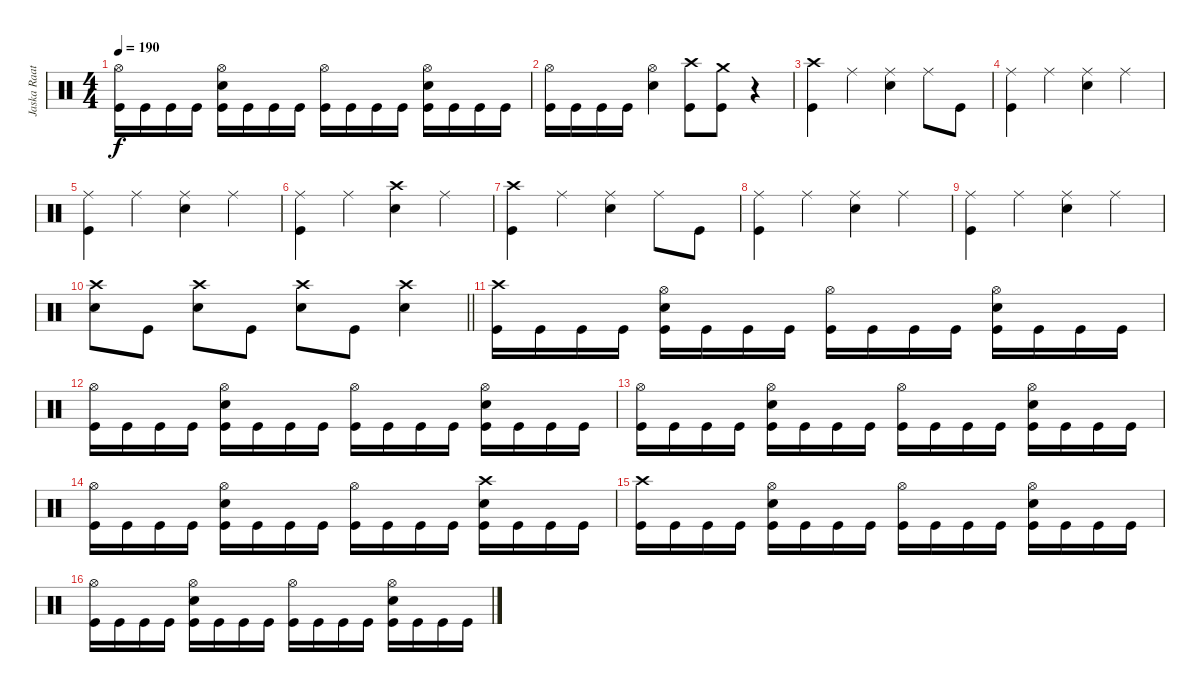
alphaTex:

\track ("Jaska Raatikainen" "Jaska Raat") {instrument percussion}
\staff {score}
\articulation defaults
\ts (4 4)
\tempo 190
\clef neutral
\ks c
("Hi-Hat (open)" "Kick (hit)").16{dy f} "Kick (hit)".16 "Kick (hit)".16 "Kick (hit)".16 ("Hi-Hat (open)" "Snare (hit) 2" "Kick (hit)").16 "Kick (hit)".16 "Kick (hit)".16 "Kick (hit)".16 ("Hi-Hat (open)" "Kick (hit)").16 "Kick (hit)".16 "Kick (hit)".16 "Kick (hit)".16 ("Hi-Hat (open)" "Snare (hit) 2" "Kick (hit)").16 "Kick (hit)".16 "Kick (hit)".16 "Kick (hit)".16 |
("Hi-Hat (open)" "Kick (hit)").16 "Kick (hit)".16 "Kick (hit)".16 "Kick (hit)".16 ("Hi-Hat (open)" "Snare (hit) 2").4 ("Crash high (hit)" "Kick (hit)").8 ("Crash medium (hit)" "Kick (hit)").8 r.4 |
("Crash high (hit)" "Kick (hit)").4 "Ride (middle)".4 ("Ride (middle)" "Snare (hit) 2").4 "Ride (middle)".8 "Kick (hit)".8 |
("Ride (middle)" "Kick (hit)").4 "Ride (middle)".4 ("Ride (middle)" "Snare (hit) 2").4 "Ride (middle)".4 |
("Ride (middle)" "Kick (hit)").4 "Ride (middle)".4 ("Ride (middle)" "Snare (hit) 2").4 "Ride (middle)".4 |
("Ride (middle)" "Kick (hit)").4 "Ride (middle)".4 ("Crash high (hit)" "Snare (hit) 2").4 "Ride (middle)".4 |
("Crash high (hit)" "Kick (hit)").4 "Ride (middle)".4 ("Ride (middle)" "Snare (hit) 2").4 "Ride (middle)".8 "Kick (hit)".8 |
("Ride (middle)" "Kick (hit)").4 "Ride (middle)".4 ("Ride (middle)" "Snare (hit) 2").4 "Ride (middle)".4 |
("Ride (middle)" "Kick (hit)").4 "Ride (middle)".4 ("Ride (middle)" "Snare (hit) 2").4 "Ride (middle)".4 |
\barLineRight lightlight
("Crash high (hit)" "Snare (hit) 2").8 "Kick (hit)".8 ("Crash high (hit)" "Snare (hit) 2").8 "Kick (hit)".8 ("Crash high (hit)" "Snare (hit) 2").8 "Kick (hit)".8 ("Crash high (hit)" "Snare (hit) 2").4 |
("Crash high (hit)" "Kick (hit)").16 "Kick (hit)".16 "Kick (hit)".16 "Kick (hit)".16 ("Hi-Hat (open)" "Snare (hit) 2" "Kick (hit)").16 "Kick (hit)".16 "Kick (hit)".16 "Kick (hit)".16 ("Hi-Hat (open)" "Kick (hit)").16 "Kick (hit)".16 "Kick (hit)".16 "Kick (hit)".16 ("Hi-Hat (open)" "Snare (hit) 2" "Kick (hit)").16 "Kick (hit)".16 "Kick (hit)".16 "Kick (hit)".16 |
("Hi-Hat (open)" "Kick (hit)").16 "Kick (hit)".16 "Kick (hit)".16 "Kick (hit)".16 ("Hi-Hat (open)" "Snare (hit) 2" "Kick (hit)").16 "Kick (hit)".16 "Kick (hit)".16 "Kick (hit)".16 ("Hi-Hat (open)" "Kick (hit)").16 "Kick (hit)".16 "Kick (hit)".16 "Kick (hit)".16 ("Hi-Hat (open)" "Snare (hit) 2" "Kick (hit)").16 "Kick (hit)".16 "Kick (hit)".16 "Kick (hit)".16 |
("Hi-Hat (open)" "Kick (hit)").16 "Kick (hit)".16 "Kick (hit)".16 "Kick (hit)".16 ("Hi-Hat (open)" "Snare (hit) 2" "Kick (hit)").16 "Kick (hit)".16 "Kick (hit)".16 "Kick (hit)".16 ("Hi-Hat (open)" "Kick (hit)").16 "Kick (hit)".16 "Kick (hit)".16 "Kick (hit)".16 ("Hi-Hat (open)" "Snare (hit) 2" "Kick (hit)").16 "Kick (hit)".16 "Kick (hit)".16 "Kick (hit)".16 |
("Hi-Hat (open)" "Kick (hit)").16 "Kick (hit)".16 "Kick (hit)".16 "Kick (hit)".16 ("Hi-Hat (open)" "Snare (hit) 2" "Kick (hit)").16 "Kick (hit)".16 "Kick (hit)".16 "Kick (hit)".16 ("Hi-Hat (open)" "Kick (hit)").16 "Kick (hit)".16 "Kick (hit)".16 "Kick (hit)".16 ("Crash high (hit)" "Snare (hit) 2" "Kick (hit)").16 "Kick (hit)".16 "Kick (hit)".16 "Kick (hit)".16 |
("Crash high (hit)" "Kick (hit)").16 "Kick (hit)".16 "Kick (hit)".16 "Kick (hit)".16 ("Hi-Hat (open)" "Snare (hit) 2" "Kick (hit)").16 "Kick (hit)".16 "Kick (hit)".16 "Kick (hit)".16 ("Hi-Hat (open)" "Kick (hit)").16 "Kick (hit)".16 "Kick (hit)".16 "Kick (hit)".16 ("Hi-Hat (open)" "Snare (hit) 2" "Kick (hit)").16 "Kick (hit)".16 "Kick (hit)".16 "Kick (hit)".16 |
("Hi-Hat (open)" "Kick (hit)").16 "Kick (hit)".16 "Kick (hit)".16 "Kick (hit)".16 ("Hi-Hat (open)" "Snare (hit) 2" "Kick (hit)").16 "Kick (hit)".16 "Kick (hit)".16 "Kick (hit)".16 ("Hi-Hat (open)" "Kick (hit)").16 "Kick (hit)".16 "Kick (hit)".16 "Kick (hit)".16 ("Hi-Hat (open)" "Snare (hit) 2" "Kick (hit)").16 "Kick (hit)".16 "Kick (hit)".16 "Kick (hit)".16
